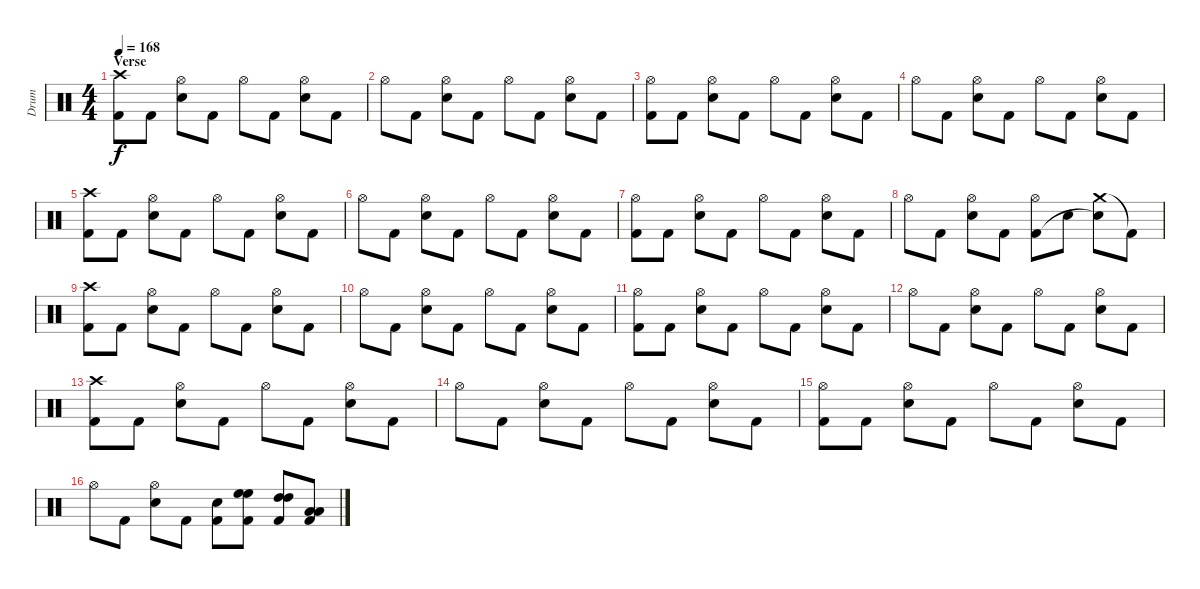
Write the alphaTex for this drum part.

\track ("Drum" "Drum") {instrument percussion}
\staff {score}
\articulation defaults
\ts (4 4)
\section ("" "Verse")
\tempo 168
\clef neutral
\ks c
("Crash high (hit)" "Kick (hit) 2").8{dy f} "Kick (hit) 2".8 ("Hi-Hat (open)" "Electric Snare (hit)").8 "Kick (hit) 2".8 "Hi-Hat (open)".8 "Kick (hit) 2".8 ("Hi-Hat (open)" "Electric Snare (hit)").8 "Kick (hit) 2".8 |
"Hi-Hat (open)".8 "Kick (hit) 2".8 ("Hi-Hat (open)" "Electric Snare (hit)").8 "Kick (hit) 2".8 "Hi-Hat (open)".8 "Kick (hit) 2".8 ("Hi-Hat (open)" "Electric Snare (hit)").8 "Kick (hit) 2".8 |
("Hi-Hat (open)" "Kick (hit) 2").8 "Kick (hit) 2".8 ("Hi-Hat (open)" "Electric Snare (hit)").8 "Kick (hit) 2".8 "Hi-Hat (open)".8 "Kick (hit) 2".8 ("Hi-Hat (open)" "Electric Snare (hit)").8 "Kick (hit) 2".8 |
"Hi-Hat (open)".8 "Kick (hit) 2".8 ("Hi-Hat (open)" "Electric Snare (hit)").8 "Kick (hit) 2".8 "Hi-Hat (open)".8 "Kick (hit) 2".8 ("Hi-Hat (open)" "Electric Snare (hit)").8 "Kick (hit) 2".8 |
("Crash high (hit)" "Kick (hit) 2").8 "Kick (hit) 2".8 ("Hi-Hat (open)" "Electric Snare (hit)").8 "Kick (hit) 2".8 "Hi-Hat (open)".8 "Kick (hit) 2".8 ("Hi-Hat (open)" "Electric Snare (hit)").8 "Kick (hit) 2".8 |
"Hi-Hat (open)".8 "Kick (hit) 2".8 ("Hi-Hat (open)" "Electric Snare (hit)").8 "Kick (hit) 2".8 "Hi-Hat (open)".8 "Kick (hit) 2".8 ("Hi-Hat (open)" "Electric Snare (hit)").8 "Kick (hit) 2".8 |
("Hi-Hat (open)" "Kick (hit) 2").8 "Kick (hit) 2".8 ("Hi-Hat (open)" "Electric Snare (hit)").8 "Kick (hit) 2".8 "Hi-Hat (open)".8 "Kick (hit) 2".8 ("Hi-Hat (open)" "Electric Snare (hit)").8 "Kick (hit) 2".8 |
"Hi-Hat (open)".8 "Kick (hit) 2".8 ("Hi-Hat (open)" "Electric Snare (hit)").8 "Kick (hit) 2".8 ("Hi-Hat (open)" "Kick (hit) 2").8 "Electric Snare (hit)".8 ("Crash medium (hit)" "Electric Snare (hit)"{t}).8 "Kick (hit) 2"{t}.8 |
("Crash high (hit)" "Kick (hit) 2").8 "Kick (hit) 2".8 ("Hi-Hat (open)" "Electric Snare (hit)").8 "Kick (hit) 2".8 "Hi-Hat (open)".8 "Kick (hit) 2".8 ("Hi-Hat (open)" "Electric Snare (hit)").8 "Kick (hit) 2".8 |
"Hi-Hat (open)".8 "Kick (hit) 2".8 ("Hi-Hat (open)" "Electric Snare (hit)").8 "Kick (hit) 2".8 "Hi-Hat (open)".8 "Kick (hit) 2".8 ("Hi-Hat (open)" "Electric Snare (hit)").8 "Kick (hit) 2".8 |
("Hi-Hat (open)" "Kick (hit) 2").8 "Kick (hit) 2".8 ("Hi-Hat (open)" "Electric Snare (hit)").8 "Kick (hit) 2".8 "Hi-Hat (open)".8 "Kick (hit) 2".8 ("Hi-Hat (open)" "Electric Snare (hit)").8 "Kick (hit) 2".8 |
"Hi-Hat (open)".8 "Kick (hit) 2".8 ("Hi-Hat (open)" "Electric Snare (hit)").8 "Kick (hit) 2".8 "Hi-Hat (open)".8 "Kick (hit) 2".8 ("Hi-Hat (open)" "Electric Snare (hit)").8 "Kick (hit) 2".8 |
("Crash high (hit)" "Kick (hit) 2").8 "Kick (hit) 2".8 ("Hi-Hat (open)" "Electric Snare (hit)").8 "Kick (hit) 2".8 "Hi-Hat (open)".8 "Kick (hit) 2".8 ("Hi-Hat (open)" "Electric Snare (hit)").8 "Kick (hit) 2".8 |
"Hi-Hat (open)".8 "Kick (hit) 2".8 ("Hi-Hat (open)" "Electric Snare (hit)").8 "Kick (hit) 2".8 "Hi-Hat (open)".8 "Kick (hit) 2".8 ("Hi-Hat (open)" "Electric Snare (hit)").8 "Kick (hit) 2".8 |
("Hi-Hat (open)" "Kick (hit) 2").8 "Kick (hit) 2".8 ("Hi-Hat (open)" "Electric Snare (hit)").8 "Kick (hit) 2".8 "Hi-Hat (open)".8 "Kick (hit) 2".8 ("Hi-Hat (open)" "Electric Snare (hit)").8 "Kick (hit) 2".8 |
"Hi-Hat (open)".8 "Kick (hit) 2".8 ("Hi-Hat (open)" "Electric Snare (hit)").8 "Kick (hit) 2".8 ("Electric Snare (hit)" "Kick (hit) 2").8 ("High Floor Tom (hit)" "High Floor Tom (hit)" "Kick (hit) 2").8 ("High Tom (hit)" "High Tom (hit)" "Kick (hit) 2").8 ("Low Tom (hit)" "Low Tom (hit)" "Kick (hit) 2").8
